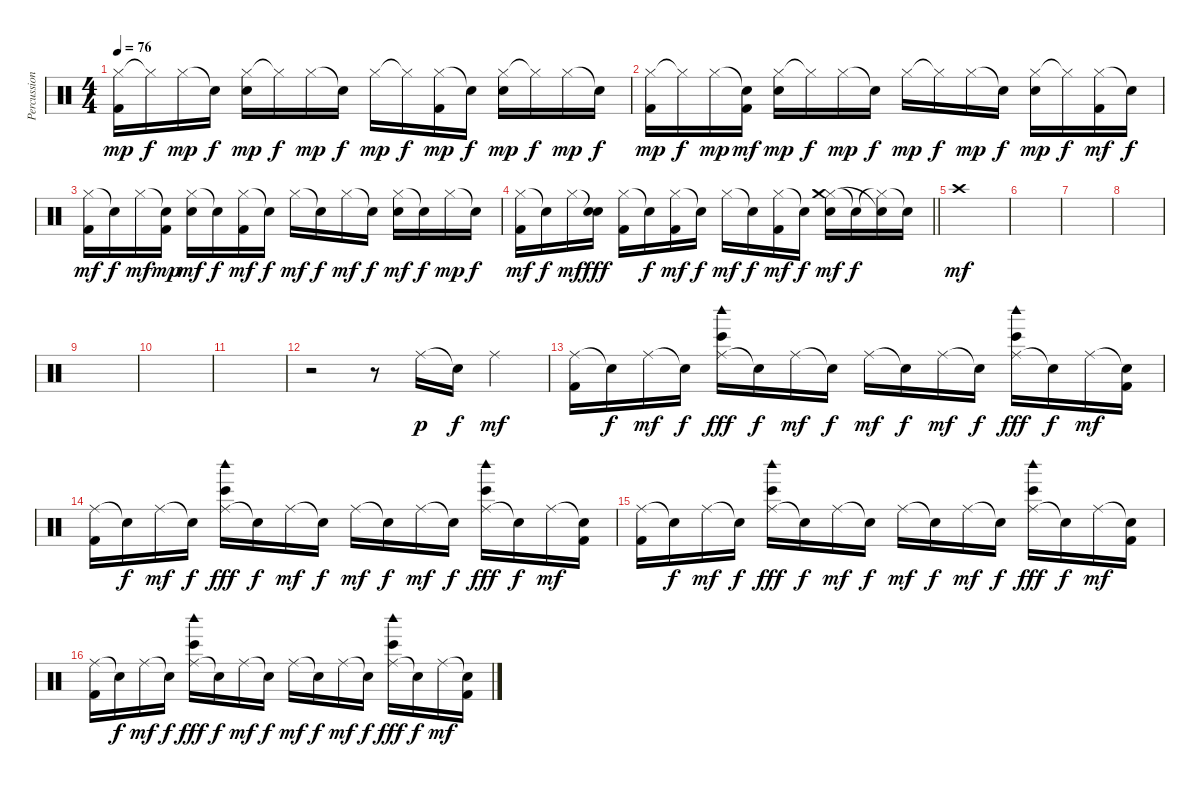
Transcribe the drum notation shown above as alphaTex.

\track ("Percussion" "Percussion") {instrument percussion}
\staff {score}
\articulation defaults
\ts (4 4)
\tempo 76
\clef neutral
\ks c
("Hi-Hat (closed)" "Kick (hit) 2").16{dy mp} "Hi-Hat (closed)"{t}.16{dy f} "Hi-Hat (closed)".16{dy mp} "Snare (hit)"{t}.16{dy f} ("Hi-Hat (closed)" "Electric Snare (hit)").16{dy mp} "Hi-Hat (closed)"{t}.16{dy f} "Hi-Hat (closed)".16{dy mp} "Snare (hit)"{t}.16{dy f} "Hi-Hat (closed)".16{dy mp} "Hi-Hat (closed)"{t}.16{dy f} ("Hi-Hat (closed)" "Kick (hit) 2").16{dy mp} "Snare (hit)"{t}.16{dy f} ("Hi-Hat (closed)" "Electric Snare (hit)").16{dy mp} "Hi-Hat (closed)"{t}.16{dy f} "Hi-Hat (closed)".16{dy mp} "Snare (hit)"{t}.16{dy f} |
("Hi-Hat (closed)" "Kick (hit) 2").16{dy mp} "Hi-Hat (closed)"{t}.16{dy f} "Hi-Hat (closed)".16{dy mp} ("Snare (hit)"{t} "Kick (hit) 2").16{dy mf} ("Hi-Hat (closed)" "Electric Snare (hit)").16{dy mp} "Hi-Hat (closed)"{t}.16{dy f} "Hi-Hat (closed)".16{dy mp} "Snare (hit)"{t}.16{dy f} "Hi-Hat (closed)".16{dy mp} "Hi-Hat (closed)"{t}.16{dy f} "Hi-Hat (closed)".16{dy mp} "Snare (hit)"{t}.16{dy f} ("Hi-Hat (closed)" "Electric Snare (hit)").16{dy mp} "Hi-Hat (closed)"{t}.16{dy f} ("Hi-Hat (closed)" "Kick (hit) 2").16{dy mf} "Snare (hit)"{t}.16{dy f} |
("Hi-Hat (closed)" "Kick (hit) 2").16{dy mf} "Snare (hit)"{t}.16{dy f} "Hi-Hat (closed)".16{dy mf} ("Snare (hit)"{t} "Kick (hit) 2").16{dy mp} ("Hi-Hat (closed)" "Electric Snare (hit)").16{dy mf} "Snare (hit)"{t}.16{dy f} ("Hi-Hat (closed)" "Kick (hit) 2").16{dy mf} "Snare (hit)"{t}.16{dy f} "Hi-Hat (closed)".16{dy mf} "Snare (hit)"{t}.16{dy f} "Hi-Hat (closed)".16{dy mf} "Snare (hit)"{t}.16{dy f} ("Hi-Hat (closed)" "Electric Snare (hit)").16{dy mf} "Snare (hit)"{t}.16{dy f} "Hi-Hat (closed)".16{dy mp} "Snare (hit)"{t}.16{dy f} |
\barLineRight lightlight
("Hi-Hat (closed)" "Kick (hit) 2").16{dy mf} "Snare (hit)"{t}.16{dy f} "Hi-Hat (closed)".16{dy mf} ("Snare (hit)"{t} "Electric Snare (hit)").16{dy fff} ("Hi-Hat (closed)" "Kick (hit) 2").16 "Snare (hit)"{t}.16{dy f} ("Hi-Hat (closed)" "Kick (hit) 2").16{dy mf} "Snare (hit)"{t}.16{dy f} "Hi-Hat (closed)".16{dy mf} "Snare (hit)"{t}.16{dy f} ("Hi-Hat (closed)" "Kick (hit) 2").16{dy mf} "Snare (hit)"{t}.16{dy f} ("Hi-Hat (closed)" "Crash medium (hit)" "Electric Snare (hit)").16{dy mf} "Snare (hit)"{t}.16{dy f} ("Hi-Hat (closed)"{t} "Electric Snare (hit)"{t}).16 "Snare (hit)"{t}.16 |
"Crash high (hit)".1{dy mf} |
|
|
|
|
|
|
r.2 r.8 "Ride (middle)".16{dy p} "Snare (hit)"{t}.16{dy f} "Ride (middle)".4{dy mf} |
("Ride (middle)" "Kick (hit) 2").16 "Snare (hit)"{t}.16{dy f} "Ride (middle)".16{dy mf} "Snare (hit)"{t}.16{dy f} ("Ride (middle)" "Woodblock high (hit)" "Bongo High (hit)").16{dy fff} "Snare (hit)"{t}.16{dy f} "Ride (middle)".16{dy mf} "Snare (hit)"{t}.16{dy f} "Ride (middle)".16{dy mf} "Snare (hit)"{t}.16{dy f} "Ride (middle)".16{dy mf} "Snare (hit)"{t}.16{dy f} ("Ride (middle)" "Woodblock high (hit)" "Bongo High (hit)").16{dy fff} "Snare (hit)"{t}.16{dy f} "Ride (middle)".16{dy mf} ("Snare (hit)"{t} "Kick (hit) 2").16 |
("Ride (middle)" "Kick (hit) 2").16 "Snare (hit)"{t}.16{dy f} "Ride (middle)".16{dy mf} "Snare (hit)"{t}.16{dy f} ("Ride (middle)" "Woodblock high (hit)" "Bongo High (hit)").16{dy fff} "Snare (hit)"{t}.16{dy f} "Ride (middle)".16{dy mf} "Snare (hit)"{t}.16{dy f} "Ride (middle)".16{dy mf} "Snare (hit)"{t}.16{dy f} "Ride (middle)".16{dy mf} "Snare (hit)"{t}.16{dy f} ("Ride (middle)" "Woodblock high (hit)" "Bongo High (hit)").16{dy fff} "Snare (hit)"{t}.16{dy f} "Ride (middle)".16{dy mf} ("Snare (hit)"{t} "Kick (hit) 2").16 |
("Ride (middle)" "Kick (hit) 2").16 "Snare (hit)"{t}.16{dy f} "Ride (middle)".16{dy mf} "Snare (hit)"{t}.16{dy f} ("Ride (middle)" "Woodblock high (hit)" "Bongo High (hit)").16{dy fff} "Snare (hit)"{t}.16{dy f} "Ride (middle)".16{dy mf} "Snare (hit)"{t}.16{dy f} "Ride (middle)".16{dy mf} "Snare (hit)"{t}.16{dy f} "Ride (middle)".16{dy mf} "Snare (hit)"{t}.16{dy f} ("Ride (middle)" "Woodblock high (hit)" "Bongo High (hit)").16{dy fff} "Snare (hit)"{t}.16{dy f} "Ride (middle)".16{dy mf} ("Snare (hit)"{t} "Kick (hit) 2").16 |
("Ride (middle)" "Kick (hit) 2").16 "Snare (hit)"{t}.16{dy f} "Ride (middle)".16{dy mf} "Snare (hit)"{t}.16{dy f} ("Ride (middle)" "Woodblock high (hit)" "Bongo High (hit)").16{dy fff} "Snare (hit)"{t}.16{dy f} "Ride (middle)".16{dy mf} "Snare (hit)"{t}.16{dy f} "Ride (middle)".16{dy mf} "Snare (hit)"{t}.16{dy f} "Ride (middle)".16{dy mf} "Snare (hit)"{t}.16{dy f} ("Ride (middle)" "Woodblock high (hit)" "Bongo High (hit)").16{dy fff} "Snare (hit)"{t}.16{dy f} "Ride (middle)".16{dy mf} ("Snare (hit)"{t} "Kick (hit) 2").16
